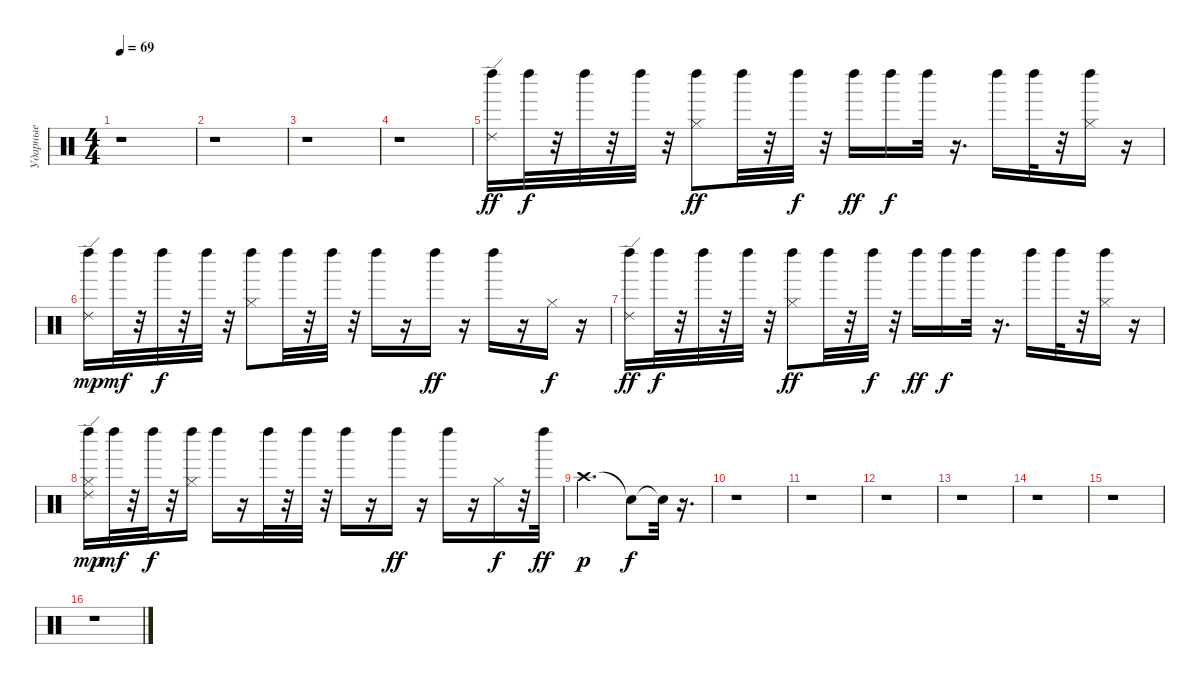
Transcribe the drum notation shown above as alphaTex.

\track ("Ударные" "Ударные") {instrument percussion}
\staff {score}
\articulation defaults
\ts (4 4)
\tempo 69
\clef neutral
\ks c
r.1{dy ff} |
r.1 |
r.1 |
r.1 |
("Ride (edge) 2" "Left Maraca (hit)").16 "Left Maraca (hit)".32{dy f} r.32 "Left Maraca (hit)".32 r.32 "Left Maraca (hit)".32 r.32 ("Hi-Hat (closed)" "Left Maraca (hit)").8{dy ff} "Left Maraca (hit)".32 r.32 "Left Maraca (hit)".32{dy f} r.32 "Left Maraca (hit)".16{dy ff} "Left Maraca (hit)".16{dy f} "Left Maraca (hit)".32 r.16{d} "Left Maraca (hit)".16 "Left Maraca (hit)".32 r.32 ("Hi-Hat (closed)" "Left Maraca (hit)").16 r.16 |
("Left Maraca (hit)" "Ride (edge) 2").16{dy mp} "Left Maraca (hit)".32{dy mf} r.32 "Left Maraca (hit)".32{dy f} r.32 "Left Maraca (hit)".32 r.32 ("Hi-Hat (closed)" "Left Maraca (hit)").8 "Left Maraca (hit)".32 r.32 "Left Maraca (hit)".32 r.32 "Left Maraca (hit)".16 r.16 "Left Maraca (hit)".16{dy ff} r.16 "Left Maraca (hit)".16 r.16 "Hi-Hat (closed)".16{dy f} r.16 |
("Left Maraca (hit)" "Ride (edge) 2").16{dy ff} "Left Maraca (hit)".32{dy f} r.32 "Left Maraca (hit)".32 r.32 "Left Maraca (hit)".32 r.32 ("Left Maraca (hit)" "Hi-Hat (closed)").8{dy ff} "Left Maraca (hit)".32 r.32 "Left Maraca (hit)".32{dy f} r.32 "Left Maraca (hit)".16{dy ff} "Left Maraca (hit)".16{dy f} "Left Maraca (hit)".32 r.16{d} "Left Maraca (hit)".16 "Left Maraca (hit)".32 r.32 ("Left Maraca (hit)" "Hi-Hat (closed)").16 r.16 |
("Hi-Hat (closed)" "Left Maraca (hit)" "Ride (edge) 2").16{dy mp} "Left Maraca (hit)".32{dy mf} r.32 "Left Maraca (hit)".32{dy f} r.32 ("Left Maraca (hit)" "Hi-Hat (closed)").16 "Left Maraca (hit)".16 r.16 "Left Maraca (hit)".32 r.32 "Left Maraca (hit)".32 r.32 "Left Maraca (hit)".16 r.16 "Left Maraca (hit)".16{dy ff} r.16 "Left Maraca (hit)".16 r.16 "Hi-Hat (closed)".16{dy f} r.32 "Left Maraca (hit)".32{dy ff} |
"Crash high (hit)".2{d dy p} "Snare (hit)"{t}.8{dy f} "Snare (hit)"{t}.32 r.16{d} |
r.1 |
r.1 |
r.1 |
r.1 |
r.1 |
r.1 |
r.1
